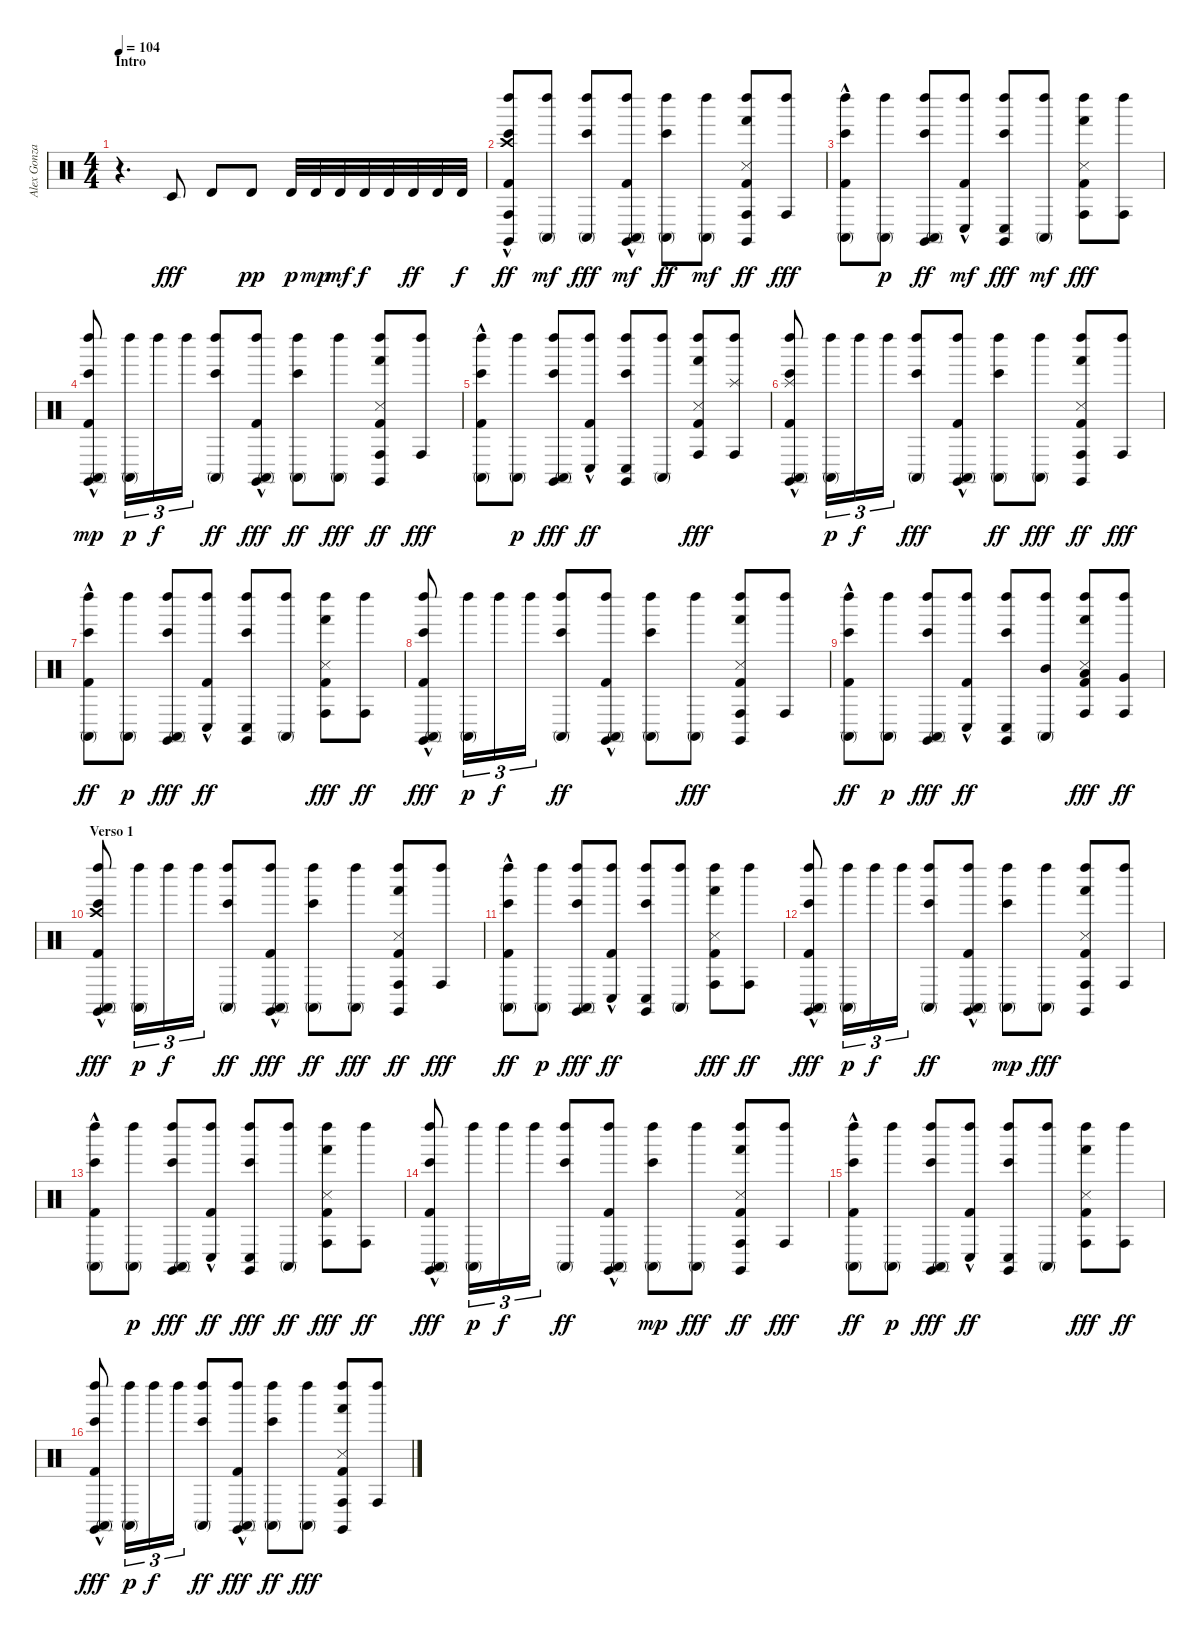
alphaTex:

\track ("Alex Gonzalez" "Alex Gonza") {instrument percussion}
\staff {score}
\articulation defaults
\ts (4 4)
\section ("" "Intro")
\tempo 104
\clef neutral
\ks c
r.4{d dy fff} "Timbale low (hit)".8 "Timbale high (hit)".8 "Timbale high (hit)".8{dy pp} "Timbale high (hit)".32{dy p} "Timbale high (hit)".32{dy mp} "Timbale high (hit)".32{dy mf} "Timbale high (hit)".32{dy f} "Timbale high (hit)".32 "Timbale high (hit)".32{dy ff} "Timbale high (hit)".32 "Timbale high (hit)".32{dy f} |
("Claves (hit)"{hac} "Conga high (hit)" "Left Maraca (hit)" "Kick (hit) 2"{hac} "Bongo High (hit)" "Crash high (hit)").8{dy ff} ("Conga high (mute)" "Left Maraca (hit)").8{dy mf} ("Left Maraca (hit)" "Bongo High (hit)" "Conga high (mute)").8{dy fff} ("Conga high (mute)" "Kick (hit) 2"{hac} "Left Maraca (hit)" "Claves (hit)"{hac}).8{dy mf} ("Bongo High (hit)" "Conga high (mute)" "Left Maraca (hit)").8{dy ff} ("Conga high (mute)" "Left Maraca (hit)").8{dy mf} ("Hand (hit)" "Conga high (hit)" "Claves (hit)" "Kick (hit) 2" "Snare (side stick) 3" "Left Maraca (hit)").8{dy ff} ("Conga high (hit)" "Left Maraca (hit)").8{dy fff} |
("Conga high (mute)" "Left Maraca (hit)" "Kick (hit) 2"{hac} "Bongo High (hit)").8 ("Conga high (mute)" "Left Maraca (hit)").8{dy p} ("Claves (hit)" "Conga high (mute)" "Left Maraca (hit)" "Bongo High (hit)").8{dy ff} ("Kick (hit) 2"{hac} "Conga low (hit)" "Left Maraca (hit)").8{dy mf} ("Claves (hit)" "Conga low (hit)" "Left Maraca (hit)" "Bongo High (hit)").8{dy fff} ("Conga high (mute)" "Left Maraca (hit)").8{dy mf} ("Snare (side stick) 3" "Left Maraca (hit)" "Hand (hit)" "Conga high (hit)" "Kick (hit) 2").8{dy fff} ("Conga high (hit)" "Left Maraca (hit)").8 |
("Claves (hit)"{hac} "Kick (hit) 2"{hac} "Bongo High (hit)" "Left Maraca (hit)" "Conga high (mute)").8{dy mp} ("Conga high (mute)" "Left Maraca (hit)").16{tu (3 2) dy p} "Left Maraca (hit)".16{tu (3 2) dy f} "Left Maraca (hit)".16{tu (3 2)} ("Conga high (mute)" "Bongo High (hit)" "Left Maraca (hit)").8{dy ff} ("Conga high (mute)" "Left Maraca (hit)" "Kick (hit) 2"{hac} "Claves (hit)"{hac}).8{dy fff} ("Left Maraca (hit)" "Conga high (mute)" "Bongo High (hit)").8{dy ff} ("Conga high (mute)" "Left Maraca (hit)").8{dy fff} ("Claves (hit)" "Conga high (hit)" "Kick (hit) 2" "Snare (side stick) 3" "Hand (hit)" "Left Maraca (hit)").8{dy ff} ("Conga high (hit)" "Left Maraca (hit)").8{dy fff} |
("Kick (hit) 2"{hac} "Conga high (mute)" "Left Maraca (hit)" "Bongo High (hit)").8 ("Conga high (mute)" "Left Maraca (hit)").8{dy p} ("Claves (hit)" "Conga high (mute)" "Bongo High (hit)" "Left Maraca (hit)").8{dy fff} ("Left Maraca (hit)" "Conga low (hit)" "Kick (hit) 2"{hac}).8{dy ff} ("Bongo High (hit)" "Left Maraca (hit)" "Claves (hit)" "Conga low (hit)").8 ("Conga high (mute)" "Left Maraca (hit)").8 ("Conga high (hit)" "Kick (hit) 2" "Snare (side stick) 3" "Hand (hit)" "Left Maraca (hit)").8{dy fff} ("Left Maraca (hit)" "Splash (hit)" "Conga high (hit)").8 |
("Kick (hit) 2"{hac} "Splash (hit)" "Conga high (mute)" "Bongo High (hit)" "Left Maraca (hit)" "Claves (hit)"{hac}).8 ("Conga high (mute)" "Left Maraca (hit)").16{tu (3 2) dy p} "Left Maraca (hit)".16{tu (3 2) dy f} "Left Maraca (hit)".16{tu (3 2)} ("Bongo High (hit)" "Left Maraca (hit)" "Conga high (mute)").8{dy fff} ("Conga high (mute)" "Claves (hit)"{hac} "Left Maraca (hit)" "Kick (hit) 2"{hac}).8 ("Conga high (mute)" "Bongo High (hit)" "Left Maraca (hit)").8{dy ff} ("Conga high (mute)" "Left Maraca (hit)").8{dy fff} ("Claves (hit)" "Kick (hit) 2" "Conga high (hit)" "Hand (hit)" "Snare (side stick) 3" "Left Maraca (hit)").8{dy ff} ("Conga high (hit)" "Left Maraca (hit)").8{dy fff} |
("Conga high (mute)" "Kick (hit) 2"{hac} "Bongo High (hit)" "Left Maraca (hit)").8{dy ff} ("Conga high (mute)" "Left Maraca (hit)").8{dy p} ("Left Maraca (hit)" "Bongo High (hit)" "Conga high (mute)" "Claves (hit)").8{dy fff} ("Conga low (hit)" "Kick (hit) 2"{hac} "Left Maraca (hit)").8{dy ff} ("Claves (hit)" "Conga low (hit)" "Bongo High (hit)" "Left Maraca (hit)").8 ("Conga high (mute)" "Left Maraca (hit)").8 ("Left Maraca (hit)" "Conga high (hit)" "Snare (side stick) 3" "Hand (hit)" "Kick (hit) 2").8{dy fff} ("Conga high (hit)" "Left Maraca (hit)").8{dy ff} |
("Conga high (mute)" "Kick (hit) 2"{hac} "Claves (hit)"{hac} "Left Maraca (hit)" "Bongo High (hit)").8{dy fff} ("Conga high (mute)" "Left Maraca (hit)").16{tu (3 2) dy p} "Left Maraca (hit)".16{tu (3 2) dy f} "Left Maraca (hit)".16{tu (3 2)} ("Conga high (mute)" "Bongo High (hit)" "Left Maraca (hit)").8{dy ff} ("Kick (hit) 2"{hac} "Claves (hit)"{hac} "Conga high (mute)" "Left Maraca (hit)").8 ("Left Maraca (hit)" "Conga high (mute)" "Bongo High (hit)").8 ("Conga high (mute)" "Left Maraca (hit)").8{dy fff} ("Conga high (hit)" "Kick (hit) 2" "Claves (hit)" "Left Maraca (hit)" "Snare (side stick) 3" "Hand (hit)").8 ("Conga high (hit)" "Left Maraca (hit)").8 |
("Conga high (mute)" "Kick (hit) 2"{hac} "Bongo High (hit)" "Left Maraca (hit)").8{dy ff} ("Conga high (mute)" "Left Maraca (hit)").8{dy p} ("Bongo High (hit)" "Left Maraca (hit)" "Claves (hit)" "Conga high (mute)").8{dy fff} ("Kick (hit) 2"{hac} "Left Maraca (hit)" "Conga low (hit)").8{dy ff} ("Claves (hit)" "Conga low (hit)" "Bongo High (hit)" "Left Maraca (hit)").8 ("Mid Tom (hit)" "Conga high (mute)" "Left Maraca (hit)").8 ("Conga high (hit)" "Snare (side stick) 3" "Hand (hit)" "Kick (hit) 2" "Left Maraca (hit)" "Low Tom (hit)").8{dy fff} ("Very Low Tom (hit)" "Conga high (hit)" "Left Maraca (hit)").8{dy ff} |
\section ("" "Verso 1")
("Kick (hit) 2"{hac} "Bongo High (hit)" "Left Maraca (hit)" "Conga high (mute)" "Claves (hit)"{hac} "Crash high (hit)").8{dy fff} ("Conga high (mute)" "Left Maraca (hit)").16{tu (3 2) dy p} "Left Maraca (hit)".16{tu (3 2) dy f} "Left Maraca (hit)".16{tu (3 2)} ("Conga high (mute)" "Bongo High (hit)" "Left Maraca (hit)").8{dy ff} ("Conga high (mute)" "Claves (hit)"{hac} "Left Maraca (hit)" "Kick (hit) 2"{hac}).8{dy fff} ("Conga high (mute)" "Bongo High (hit)" "Left Maraca (hit)").8{dy ff} ("Conga high (mute)" "Left Maraca (hit)").8{dy fff} ("Snare (side stick) 3" "Claves (hit)" "Kick (hit) 2" "Conga high (hit)" "Hand (hit)" "Left Maraca (hit)").8{dy ff} ("Conga high (hit)" "Left Maraca (hit)").8{dy fff} |
("Bongo High (hit)" "Left Maraca (hit)" "Conga high (mute)" "Kick (hit) 2"{hac}).8{dy ff} ("Conga high (mute)" "Left Maraca (hit)").8{dy p} ("Claves (hit)" "Conga high (mute)" "Bongo High (hit)" "Left Maraca (hit)").8{dy fff} ("Conga low (hit)" "Kick (hit) 2"{hac} "Left Maraca (hit)").8{dy ff} ("Claves (hit)" "Bongo High (hit)" "Left Maraca (hit)" "Conga low (hit)").8 ("Conga high (mute)" "Left Maraca (hit)").8 ("Conga high (hit)" "Kick (hit) 2" "Snare (side stick) 3" "Hand (hit)" "Left Maraca (hit)").8{dy fff} ("Conga high (hit)" "Left Maraca (hit)").8{dy ff} |
("Conga high (mute)" "Claves (hit)"{hac} "Left Maraca (hit)" "Kick (hit) 2"{hac} "Bongo High (hit)").8{dy fff} ("Conga high (mute)" "Left Maraca (hit)").16{tu (3 2) dy p} "Left Maraca (hit)".16{tu (3 2) dy f} "Left Maraca (hit)".16{tu (3 2)} ("Conga high (mute)" "Bongo High (hit)" "Left Maraca (hit)").8{dy ff} ("Claves (hit)"{hac} "Conga high (mute)" "Kick (hit) 2"{hac} "Left Maraca (hit)").8 ("Bongo High (hit)" "Left Maraca (hit)" "Conga high (mute)").8{dy mp} ("Conga high (mute)" "Left Maraca (hit)").8{dy fff} ("Kick (hit) 2" "Left Maraca (hit)" "Snare (side stick) 3" "Claves (hit)" "Conga high (hit)" "Hand (hit)").8 ("Conga high (hit)" "Left Maraca (hit)").8 |
("Kick (hit) 2"{hac} "Conga high (mute)" "Left Maraca (hit)" "Bongo High (hit)").8 ("Conga high (mute)" "Left Maraca (hit)").8{dy p} ("Bongo High (hit)" "Left Maraca (hit)" "Claves (hit)" "Conga high (mute)").8{dy fff} ("Conga low (hit)" "Kick (hit) 2"{hac} "Left Maraca (hit)").8{dy ff} ("Conga low (hit)" "Claves (hit)" "Left Maraca (hit)" "Bongo High (hit)").8{dy fff} ("Conga high (mute)" "Left Maraca (hit)").8{dy ff} ("Conga high (hit)" "Kick (hit) 2" "Hand (hit)" "Left Maraca (hit)" "Snare (side stick) 3").8{dy fff} ("Conga high (hit)" "Left Maraca (hit)").8{dy ff} |
("Conga high (mute)" "Claves (hit)"{hac} "Kick (hit) 2"{hac} "Bongo High (hit)" "Left Maraca (hit)").8{dy fff} ("Conga high (mute)" "Left Maraca (hit)").16{tu (3 2) dy p} "Left Maraca (hit)".16{tu (3 2) dy f} "Left Maraca (hit)".16{tu (3 2)} ("Conga high (mute)" "Bongo High (hit)" "Left Maraca (hit)").8{dy ff} ("Claves (hit)"{hac} "Conga high (mute)" "Kick (hit) 2"{hac} "Left Maraca (hit)").8 ("Bongo High (hit)" "Left Maraca (hit)" "Conga high (mute)").8{dy mp} ("Conga high (mute)" "Left Maraca (hit)").8{dy fff} ("Snare (side stick) 3" "Conga high (hit)" "Hand (hit)" "Claves (hit)" "Kick (hit) 2" "Left Maraca (hit)").8{dy ff} ("Conga high (hit)" "Left Maraca (hit)").8{dy fff} |
("Conga high (mute)" "Kick (hit) 2"{hac} "Bongo High (hit)" "Left Maraca (hit)").8{dy ff} ("Conga high (mute)" "Left Maraca (hit)").8{dy p} ("Conga high (mute)" "Bongo High (hit)" "Claves (hit)" "Left Maraca (hit)").8{dy fff} ("Conga low (hit)" "Kick (hit) 2"{hac} "Left Maraca (hit)").8{dy ff} ("Bongo High (hit)" "Claves (hit)" "Conga low (hit)" "Left Maraca (hit)").8 ("Conga high (mute)" "Left Maraca (hit)").8 ("Hand (hit)" "Snare (side stick) 3" "Kick (hit) 2" "Conga high (hit)" "Left Maraca (hit)").8{dy fff} ("Conga high (hit)" "Left Maraca (hit)").8{dy ff} |
("Kick (hit) 2"{hac} "Bongo High (hit)" "Conga high (mute)" "Claves (hit)"{hac} "Left Maraca (hit)").8{dy fff} ("Conga high (mute)" "Left Maraca (hit)").16{tu (3 2) dy p} "Left Maraca (hit)".16{tu (3 2) dy f} "Left Maraca (hit)".16{tu (3 2)} ("Left Maraca (hit)" "Conga high (mute)" "Bongo High (hit)").8{dy ff} ("Conga high (mute)" "Claves (hit)"{hac} "Left Maraca (hit)" "Kick (hit) 2"{hac}).8{dy fff} ("Conga high (mute)" "Bongo High (hit)" "Left Maraca (hit)").8{dy ff} ("Conga high (mute)" "Left Maraca (hit)").8{dy fff} ("Claves (hit)" "Conga high (hit)" "Left Maraca (hit)" "Snare (side stick) 3" "Kick (hit) 2" "Hand (hit)").8 ("Conga high (hit)" "Left Maraca (hit)").8
